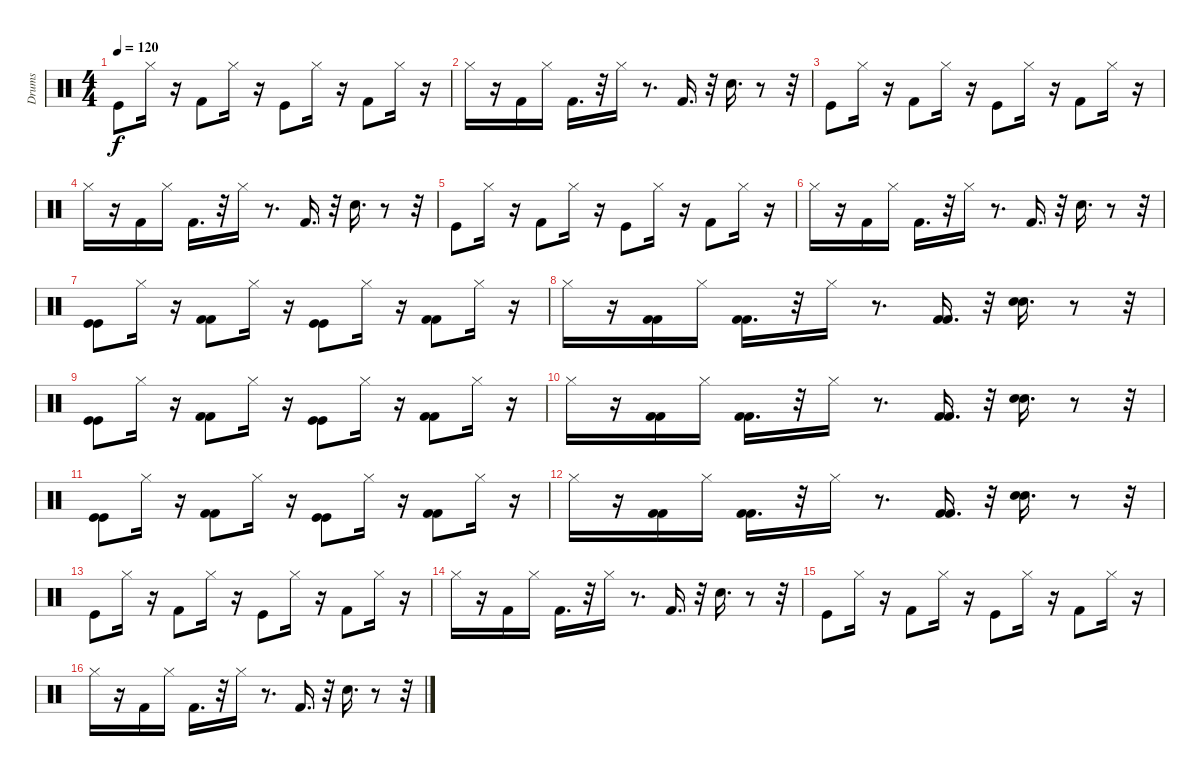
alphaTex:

\track ("Drums" "Drums") {instrument percussion}
\staff {score}
\articulation defaults
\ts (4 4)
\tempo 120
\clef neutral
\ks c "Kick (hit)".8{dy f} "Hi-Hat (closed)".16
r.16 "Kick (hit) 2".8 "Hi-Hat (closed)".16 r.16 "Kick (hit)".8 "Hi-Hat (closed)".16 r.16 "Kick (hit) 2".8 "Hi-Hat (closed)".16 r.16 |
"Hi-Hat (closed)".16 r.16 "Kick (hit) 2".16 "Hi-Hat (closed)".16 "Kick (hit) 2".16{d} r.32 "Hi-Hat (closed)".16 r.8{d} "Kick (hit) 2".16{d} r.32 "Electric Snare (hit)".16{d} r.8 r.32 |
"Kick (hit)".8 "Hi-Hat (closed)".16 r.16 "Kick (hit) 2".8 "Hi-Hat (closed)".16 r.16 "Kick (hit)".8 "Hi-Hat (closed)".16 r.16 "Kick (hit) 2".8 "Hi-Hat (closed)".16 r.16 |
"Hi-Hat (closed)".16 r.16 "Kick (hit) 2".16 "Hi-Hat (closed)".16 "Kick (hit) 2".16{d} r.32 "Hi-Hat (closed)".16 r.8{d} "Kick (hit) 2".16{d} r.32 "Electric Snare (hit)".16{d} r.8 r.32 |
"Kick (hit)".8 "Hi-Hat (closed)".16 r.16 "Kick (hit) 2".8 "Hi-Hat (closed)".16 r.16 "Kick (hit)".8 "Hi-Hat (closed)".16 r.16 "Kick (hit) 2".8 "Hi-Hat (closed)".16 r.16 |
"Hi-Hat (closed)".16 r.16 "Kick (hit) 2".16 "Hi-Hat (closed)".16 "Kick (hit) 2".16{d} r.32 "Hi-Hat (closed)".16 r.8{d} "Kick (hit) 2".16{d} r.32 "Electric Snare (hit)".16{d} r.8 r.32 |
("Kick (hit)" "Kick (hit)").8 "Hi-Hat (closed)".16 r.16 ("Kick (hit) 2" "Kick (hit) 2").8 "Hi-Hat (closed)".16 r.16 ("Kick (hit)" "Kick (hit)").8 "Hi-Hat (closed)".16 r.16 ("Kick (hit) 2" "Kick (hit) 2").8 "Hi-Hat (closed)".16 r.16 |
"Hi-Hat (closed)".16 r.16 ("Kick (hit) 2" "Kick (hit) 2").16 "Hi-Hat (closed)".16 ("Kick (hit) 2" "Kick (hit) 2").16{d} r.32 "Hi-Hat (closed)".16 r.8{d} ("Kick (hit) 2" "Kick (hit) 2").16{d} r.32 ("Electric Snare (hit)" "Electric Snare (hit)").16{d} r.8 r.32 |
("Kick (hit)" "Kick (hit)").8 "Hi-Hat (closed)".16 r.16 ("Kick (hit) 2" "Kick (hit) 2").8 "Hi-Hat (closed)".16 r.16 ("Kick (hit)" "Kick (hit)").8 "Hi-Hat (closed)".16 r.16 ("Kick (hit) 2" "Kick (hit) 2").8 "Hi-Hat (closed)".16 r.16 |
"Hi-Hat (closed)".16 r.16 ("Kick (hit) 2" "Kick (hit) 2").16 "Hi-Hat (closed)".16 ("Kick (hit) 2" "Kick (hit) 2").16{d} r.32 "Hi-Hat (closed)".16 r.8{d} ("Kick (hit) 2" "Kick (hit) 2").16{d} r.32 ("Electric Snare (hit)" "Electric Snare (hit)").16{d} r.8 r.32 |
("Kick (hit)" "Kick (hit)").8 "Hi-Hat (closed)".16 r.16 ("Kick (hit) 2" "Kick (hit) 2").8 "Hi-Hat (closed)".16 r.16 ("Kick (hit)" "Kick (hit)").8 "Hi-Hat (closed)".16 r.16 ("Kick (hit) 2" "Kick (hit) 2").8 "Hi-Hat (closed)".16 r.16 |
"Hi-Hat (closed)".16 r.16 ("Kick (hit) 2" "Kick (hit) 2").16 "Hi-Hat (closed)".16 ("Kick (hit) 2" "Kick (hit) 2").16{d} r.32 "Hi-Hat (closed)".16 r.8{d} ("Kick (hit) 2" "Kick (hit) 2").16{d} r.32 ("Electric Snare (hit)" "Electric Snare (hit)").16{d} r.8 r.32 |
"Kick (hit)".8 "Hi-Hat (closed)".16 r.16 "Kick (hit) 2".8 "Hi-Hat (closed)".16 r.16 "Kick (hit)".8 "Hi-Hat (closed)".16 r.16 "Kick (hit) 2".8 "Hi-Hat (closed)".16 r.16 |
"Hi-Hat (closed)".16 r.16 "Kick (hit) 2".16 "Hi-Hat (closed)".16 "Kick (hit) 2".16{d} r.32 "Hi-Hat (closed)".16 r.8{d} "Kick (hit) 2".16{d} r.32 "Electric Snare (hit)".16{d} r.8 r.32 |
"Kick (hit)".8 "Hi-Hat (closed)".16 r.16 "Kick (hit) 2".8 "Hi-Hat (closed)".16 r.16 "Kick (hit)".8 "Hi-Hat (closed)".16 r.16 "Kick (hit) 2".8 "Hi-Hat (closed)".16 r.16 |
"Hi-Hat (closed)".16 r.16 "Kick (hit) 2".16 "Hi-Hat (closed)".16 "Kick (hit) 2".16{d} r.32 "Hi-Hat (closed)".16 r.8{d} "Kick (hit) 2".16{d} r.32 "Electric Snare (hit)".16{d} r.8 r.32
